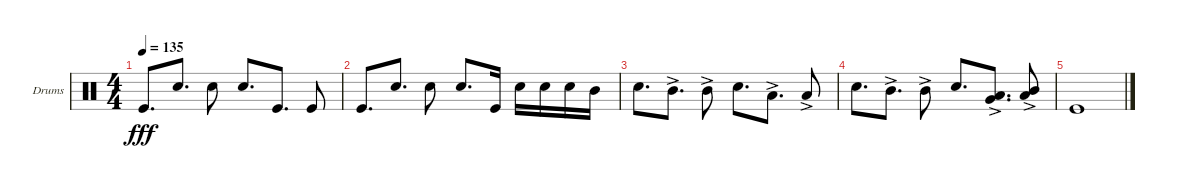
\defaultSystemsLayout 4
\bracketExtendMode groupsimilarinstruments
\firstSystemTrackNameOrientation horizontal
\otherSystemsTrackNameOrientation horizontal
\track ("Matt Helders" "Drums") {instrument percussion}
\staff {score}
\articulation defaults
\ts (4 4)
\tempo 135
\clef neutral
\ks c "Kick (hit)".8{d dy fff} "Snare (hit) 2".8{d} "Snare (hit) 2".8 "Snare (hit) 2".8{d} "Kick (hit)".8{d} "Kick (hit)".8
|
"Kick (hit)".8{d} "Snare (hit) 2".8{d} "Snare (hit) 2".8 "Snare (hit) 2".8{d} "Kick (hit)".16 "Snare (hit) 2".16 "Snare (hit) 2".16 "Snare (hit) 2".16 "Mid Tom (hit)".16 |
"Snare (hit) 2".8{d} "Mid Tom (hit)"{ac}.8{d} "Mid Tom (hit)"{ac}.8 "Snare (hit) 2".8{d} "Low Tom (hit)"{ac}.8{d} "Low Tom (hit)"{ac}.8 |
"Snare (hit) 2".8{d} "Mid Tom (hit)"{ac}.8{d} "Mid Tom (hit)"{ac}.8 "Snare (hit) 2".8{d} ("Low Tom (hit)"{ac} "Very Low Tom (hit)"{ac}).8{d} ("Low Tom (hit)"{ac} "Mid Tom (hit)").8 |
"Kick (hit)".1
